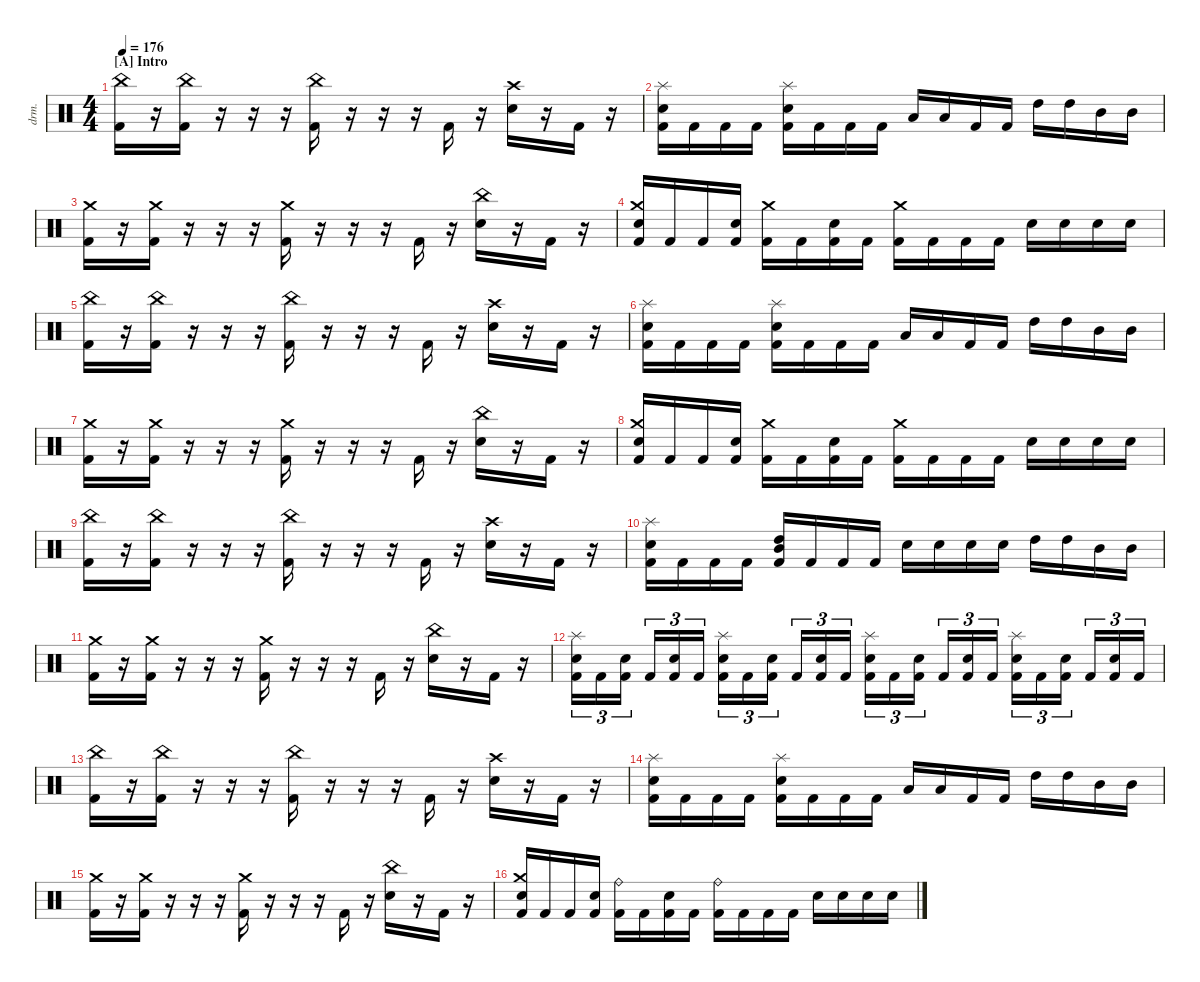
\hideDynamics
\bracketExtendMode nobrackets
\track ("Drums" "drm.") {instrument percussion}
\staff {score}
\articulation defaults
\ts (4 4)
\beaming (8 2 2 2 2)
\section ("A" "Intro")
\tempo 176
\clef neutral
\ks c
("Kick (hit) 2" "China (hit)").16{dy mf beam Down} r.16{beam Down} ("Kick (hit) 2" "China (hit)").16{beam Down} r.16{beam Down} r.16{beam Down} r.16{beam Down} ("Kick (hit) 2" "China (hit)").16{beam Down} r.16{beam Down} r.16{beam Down} r.16{beam Down} "Kick (hit) 2".16{beam Up} r.16{beam Down} ("Snare (hit) 2" "Crash high (hit)").16{beam Down} r.16{beam Down} "Kick (hit) 2".16{beam Down} r.16{beam Down} |
("Kick (hit) 2" "Snare (hit) 2" "Splash (hit)").16{beam Down} "Kick (hit) 2".16{beam Down} "Kick (hit) 2".16{beam Down} "Kick (hit) 2".16{beam Down} ("Kick (hit) 2" "Snare (hit) 2" "Splash (hit)").16{beam Down} "Kick (hit) 2".16{beam Down} "Kick (hit) 2".16{beam Down} "Kick (hit) 2".16{beam Down} "Low Tom (hit)".16{beam Up} "Low Tom (hit)".16{beam Up} "Kick (hit) 2".16{beam Up} "Kick (hit) 2".16{beam Up} "High Tom (hit)".16{beam Down} "High Tom (hit)".16{beam Down} "Mid Tom (hit)".16{beam Down} "Mid Tom (hit)".16{beam Down} |
("Kick (hit) 2" "Crash medium (hit)").16{beam Down} r.16{beam Down} ("Kick (hit) 2" "Crash medium (hit)").16{beam Down} r.16{beam Down} r.16{beam Down} r.16{beam Down} ("Kick (hit) 2" "Crash medium (hit)").16{beam Down} r.16{beam Down} r.16{beam Down} r.16{beam Down} "Kick (hit) 2".16{beam Up} r.16{beam Down} ("Snare (hit) 2" "China (hit)").16{beam Down} r.16{beam Down} "Kick (hit) 2".16{beam Down} r.16{beam Down} |
("Kick (hit) 2" "Snare (hit) 2" "Crash medium (hit)").16{beam Up} "Kick (hit) 2".16{beam Up} "Kick (hit) 2".16{beam Up} ("Kick (hit) 2" "Snare (hit) 2").16{beam Up} ("Kick (hit) 2" "Crash medium (hit)").16{beam Down} "Kick (hit) 2".16{beam Down} ("Kick (hit) 2" "Snare (hit) 2").16{beam Down} "Kick (hit) 2".16{beam Down} ("Kick (hit) 2" "Crash medium (hit)").16{beam Down} "Kick (hit) 2".16{beam Down} "Kick (hit) 2".16{beam Down} "Kick (hit) 2".16{beam Down} "Snare (hit) 2".16{beam Down} "Snare (hit) 2".16{beam Down} "Snare (hit) 2".16{beam Down} "Snare (hit) 2".16{beam Down} |
("Kick (hit) 2" "China (hit)").16{beam Down} r.16{beam Down} ("Kick (hit) 2" "China (hit)").16{beam Down} r.16{beam Down} r.16{beam Down} r.16{beam Down} ("Kick (hit) 2" "China (hit)").16{beam Down} r.16{beam Down} r.16{beam Down} r.16{beam Down} "Kick (hit) 2".16{beam Up} r.16{beam Down} ("Snare (hit) 2" "Crash high (hit)").16{beam Down} r.16{beam Down} "Kick (hit) 2".16{beam Down} r.16{beam Down} |
("Kick (hit) 2" "Snare (hit) 2" "Splash (hit)").16{beam Down} "Kick (hit) 2".16{beam Down} "Kick (hit) 2".16{beam Down} "Kick (hit) 2".16{beam Down} ("Kick (hit) 2" "Snare (hit) 2" "Splash (hit)").16{beam Down} "Kick (hit) 2".16{beam Down} "Kick (hit) 2".16{beam Down} "Kick (hit) 2".16{beam Down} "Low Tom (hit)".16{beam Up} "Low Tom (hit)".16{beam Up} "Kick (hit) 2".16{beam Up} "Kick (hit) 2".16{beam Up} "High Tom (hit)".16{beam Down} "High Tom (hit)".16{beam Down} "Mid Tom (hit)".16{beam Down} "Mid Tom (hit)".16{beam Down} |
("Kick (hit) 2" "Crash medium (hit)").16{beam Down} r.16{beam Down} ("Kick (hit) 2" "Crash medium (hit)").16{beam Down} r.16{beam Down} r.16{beam Down} r.16{beam Down} ("Kick (hit) 2" "Crash medium (hit)").16{beam Down} r.16{beam Down} r.16{beam Down} r.16{beam Down} "Kick (hit) 2".16{beam Up} r.16{beam Down} ("Snare (hit) 2" "China (hit)").16{beam Down} r.16{beam Down} "Kick (hit) 2".16{beam Down} r.16{beam Down} |
("Kick (hit) 2" "Snare (hit) 2" "Crash medium (hit)").16{beam Up} "Kick (hit) 2".16{beam Up} "Kick (hit) 2".16{beam Up} ("Kick (hit) 2" "Snare (hit) 2").16{beam Up} ("Kick (hit) 2" "Crash medium (hit)").16{beam Down} "Kick (hit) 2".16{beam Down} ("Kick (hit) 2" "Snare (hit) 2").16{beam Down} "Kick (hit) 2".16{beam Down} ("Kick (hit) 2" "Crash medium (hit)").16{beam Down} "Kick (hit) 2".16{beam Down} "Kick (hit) 2".16{beam Down} "Kick (hit) 2".16{beam Down} "Snare (hit) 2".16{beam Down} "Snare (hit) 2".16{beam Down} "Snare (hit) 2".16{beam Down} "Snare (hit) 2".16{beam Down} |
("Kick (hit) 2" "China (hit)").16{beam Down} r.16{beam Down} ("Kick (hit) 2" "China (hit)").16{beam Down} r.16{beam Down} r.16{beam Down} r.16{beam Down} ("Kick (hit) 2" "China (hit)").16{beam Down} r.16{beam Down} r.16{beam Down} r.16{beam Down} "Kick (hit) 2".16{beam Up} r.16{beam Down} ("Snare (hit) 2" "Crash high (hit)").16{beam Down} r.16{beam Down} "Kick (hit) 2".16{beam Down} r.16{beam Down} |
("Kick (hit) 2" "Snare (hit) 2" "Splash (hit)").16{beam Down} "Kick (hit) 2".16{beam Down} "Kick (hit) 2".16{beam Down} "Kick (hit) 2".16{beam Down} ("Kick (hit) 2" "Mid Tom (hit)" "High Tom (hit)").16{beam Up} "Kick (hit) 2".16{beam Up} "Kick (hit) 2".16{beam Up} "Kick (hit) 2".16{beam Up} "Snare (hit) 2".16{beam Down} "Snare (hit) 2".16{beam Down} "Snare (hit) 2".16{beam Down} "Snare (hit) 2".16{beam Down} "High Tom (hit)".16{beam Down} "High Tom (hit)".16{beam Down} "Mid Tom (hit)".16{beam Down} "Mid Tom (hit)".16{beam Down} |
("Kick (hit) 2" "Crash medium (hit)").16{beam Down} r.16{beam Down} ("Kick (hit) 2" "Crash medium (hit)").16{beam Down} r.16{beam Down} r.16{beam Down} r.16{beam Down} ("Kick (hit) 2" "Crash medium (hit)").16{beam Down} r.16{beam Down} r.16{beam Down} r.16{beam Down} "Kick (hit) 2".16{beam Up} r.16{beam Down} ("Snare (hit) 2" "China (hit)").16{beam Down} r.16{beam Down} "Kick (hit) 2".16{beam Down} r.16{beam Down} |
("Kick (hit) 2" "Snare (hit) 2" "Splash (hit)").16{tu (3 2) beam Down} "Kick (hit) 2".16{tu (3 2) beam Down} ("Snare (hit) 2" "Kick (hit) 2").16{tu (3 2) beam Down} "Kick (hit) 2".16{tu (3 2) beam Up} ("Snare (hit) 2" "Kick (hit) 2").16{tu (3 2) beam Up} "Kick (hit) 2".16{tu (3 2) beam Up} ("Kick (hit) 2" "Snare (hit) 2" "Splash (hit)").16{tu (3 2) beam Down} "Kick (hit) 2".16{tu (3 2) beam Down} ("Snare (hit) 2" "Kick (hit) 2").16{tu (3 2) beam Down} "Kick (hit) 2".16{tu (3 2) beam Up} ("Snare (hit) 2" "Kick (hit) 2").16{tu (3 2) beam Up} "Kick (hit) 2".16{tu (3 2) beam Up} ("Snare (hit) 2" "Kick (hit) 2" "Splash (hit)").16{tu (3 2) beam Down} "Kick (hit) 2".16{tu (3 2) beam Down} ("Snare (hit) 2" "Kick (hit) 2").16{tu (3 2) beam Down} "Kick (hit) 2".16{tu (3 2) beam Up} ("Snare (hit) 2" "Kick (hit) 2").16{tu (3 2) beam Up} "Kick (hit) 2".16{tu (3 2) beam Up} ("Snare (hit) 2" "Kick (hit) 2" "Splash (hit)").16{tu (3 2) beam Down} "Kick (hit) 2".16{tu (3 2) beam Down} ("Snare (hit) 2" "Kick (hit) 2").16{tu (3 2) beam Down} "Kick (hit) 2".16{tu (3 2) beam Up} ("Snare (hit) 2" "Kick (hit) 2").16{tu (3 2) beam Up} "Kick (hit) 2".16{tu (3 2) beam Up} |
("Kick (hit) 2" "China (hit)").16{beam Down} r.16{beam Down} ("Kick (hit) 2" "China (hit)").16{beam Down} r.16{beam Down} r.16{beam Down} r.16{beam Down} ("Kick (hit) 2" "China (hit)").16{beam Down} r.16{beam Down} r.16{beam Down} r.16{beam Down} "Kick (hit) 2".16{beam Up} r.16{beam Down} ("Snare (hit) 2" "Crash high (hit)").16{beam Down} r.16{beam Down} "Kick (hit) 2".16{beam Down} r.16{beam Down} |
("Kick (hit) 2" "Snare (hit) 2" "Splash (hit)").16{beam Down} "Kick (hit) 2".16{beam Down} "Kick (hit) 2".16{beam Down} "Kick (hit) 2".16{beam Down} ("Kick (hit) 2" "Snare (hit) 2" "Splash (hit)").16{beam Down} "Kick (hit) 2".16{beam Down} "Kick (hit) 2".16{beam Down} "Kick (hit) 2".16{beam Down} "Low Tom (hit)".16{beam Up} "Low Tom (hit)".16{beam Up} "Kick (hit) 2".16{beam Up} "Kick (hit) 2".16{beam Up} "High Tom (hit)".16{beam Down} "High Tom (hit)".16{beam Down} "Mid Tom (hit)".16{beam Down} "Mid Tom (hit)".16{beam Down} |
("Kick (hit) 2" "Crash medium (hit)").16{beam Down} r.16{beam Down} ("Kick (hit) 2" "Crash medium (hit)").16{beam Down} r.16{beam Down} r.16{beam Down} r.16{beam Down} ("Kick (hit) 2" "Crash medium (hit)").16{beam Down} r.16{beam Down} r.16{beam Down} r.16{beam Down} "Kick (hit) 2".16{beam Up} r.16{beam Down} ("Snare (hit) 2" "China (hit)").16{beam Down} r.16{beam Down} "Kick (hit) 2".16{beam Down} r.16{beam Down} |
("Kick (hit) 2" "Snare (hit) 2" "Crash medium (hit)").16{beam Up} "Kick (hit) 2".16{beam Up} "Kick (hit) 2".16{beam Up} ("Kick (hit) 2" "Snare (hit) 2").16{beam Up} ("Kick (hit) 2" "Ride (bell)").16{beam Down} "Kick (hit) 2".16{beam Down} ("Kick (hit) 2" "Snare (hit) 2").16{beam Down} "Kick (hit) 2".16{beam Down} ("Kick (hit) 2" "Ride (bell)").16{beam Down} "Kick (hit) 2".16{beam Down} "Kick (hit) 2".16{beam Down} "Kick (hit) 2".16{beam Down} "Snare (hit) 2".16{beam Down} "Snare (hit) 2".16{beam Down} "Snare (hit) 2".16{beam Down} "Snare (hit) 2".16{beam Down}
